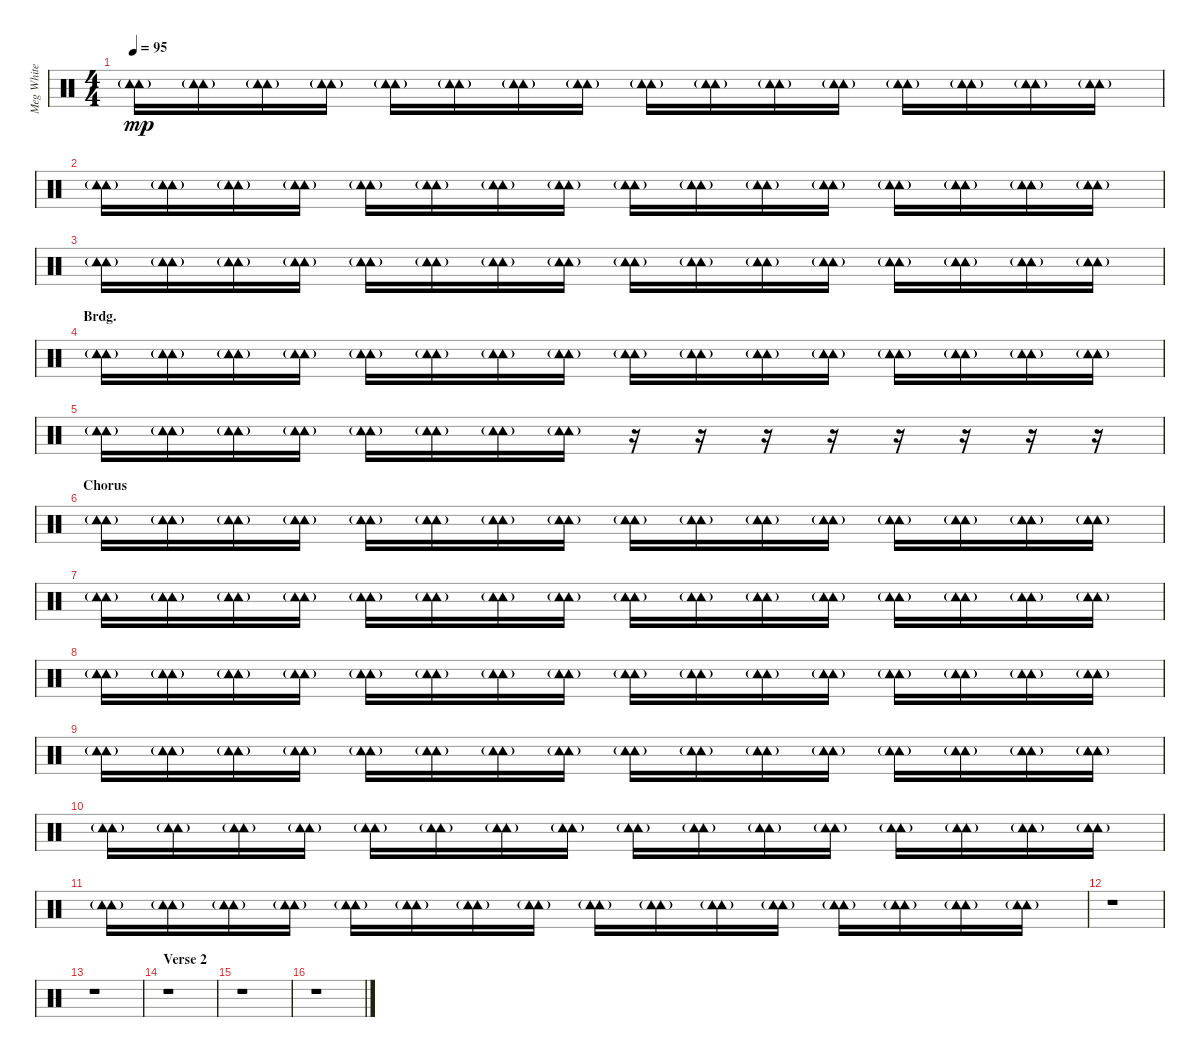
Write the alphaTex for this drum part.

\track ("Meg White - Purcussions" "Meg White ") {instrument percussion}
\staff {score}
\articulation defaults
\ts (4 4)
\tempo 95
\clef neutral
\ks c
("Tambourine (hit)"{g} "Tambourine (hit)"{g}).16{dy mp} ("Tambourine (hit)"{g} "Tambourine (hit)"{g}).16 ("Tambourine (hit)"{g} "Tambourine (hit)"{g}).16 ("Tambourine (hit)"{g} "Tambourine (hit)"{g}).16 ("Tambourine (hit)"{g} "Tambourine (hit)"{g}).16 ("Tambourine (hit)"{g} "Tambourine (hit)"{g}).16 ("Tambourine (hit)"{g} "Tambourine (hit)"{g}).16 ("Tambourine (hit)"{g} "Tambourine (hit)"{g}).16 ("Tambourine (hit)"{g} "Tambourine (hit)"{g}).16 ("Tambourine (hit)"{g} "Tambourine (hit)"{g}).16 ("Tambourine (hit)"{g} "Tambourine (hit)"{g}).16 ("Tambourine (hit)"{g} "Tambourine (hit)"{g}).16 ("Tambourine (hit)"{g} "Tambourine (hit)"{g}).16 ("Tambourine (hit)"{g} "Tambourine (hit)"{g}).16 ("Tambourine (hit)"{g} "Tambourine (hit)"{g}).16 ("Tambourine (hit)"{g} "Tambourine (hit)"{g}).16 |
("Tambourine (hit)"{g} "Tambourine (hit)"{g}).16 ("Tambourine (hit)"{g} "Tambourine (hit)"{g}).16 ("Tambourine (hit)"{g} "Tambourine (hit)"{g}).16 ("Tambourine (hit)"{g} "Tambourine (hit)"{g}).16 ("Tambourine (hit)"{g} "Tambourine (hit)"{g}).16 ("Tambourine (hit)"{g} "Tambourine (hit)"{g}).16 ("Tambourine (hit)"{g} "Tambourine (hit)"{g}).16 ("Tambourine (hit)"{g} "Tambourine (hit)"{g}).16 ("Tambourine (hit)"{g} "Tambourine (hit)"{g}).16 ("Tambourine (hit)"{g} "Tambourine (hit)"{g}).16 ("Tambourine (hit)"{g} "Tambourine (hit)"{g}).16 ("Tambourine (hit)"{g} "Tambourine (hit)"{g}).16 ("Tambourine (hit)"{g} "Tambourine (hit)"{g}).16 ("Tambourine (hit)"{g} "Tambourine (hit)"{g}).16 ("Tambourine (hit)"{g} "Tambourine (hit)"{g}).16 ("Tambourine (hit)"{g} "Tambourine (hit)"{g}).16 |
("Tambourine (hit)"{g} "Tambourine (hit)"{g}).16 ("Tambourine (hit)"{g} "Tambourine (hit)"{g}).16 ("Tambourine (hit)"{g} "Tambourine (hit)"{g}).16 ("Tambourine (hit)"{g} "Tambourine (hit)"{g}).16 ("Tambourine (hit)"{g} "Tambourine (hit)"{g}).16 ("Tambourine (hit)"{g} "Tambourine (hit)"{g}).16 ("Tambourine (hit)"{g} "Tambourine (hit)"{g}).16 ("Tambourine (hit)"{g} "Tambourine (hit)"{g}).16 ("Tambourine (hit)"{g} "Tambourine (hit)"{g}).16 ("Tambourine (hit)"{g} "Tambourine (hit)"{g}).16 ("Tambourine (hit)"{g} "Tambourine (hit)"{g}).16 ("Tambourine (hit)"{g} "Tambourine (hit)"{g}).16 ("Tambourine (hit)"{g} "Tambourine (hit)"{g}).16 ("Tambourine (hit)"{g} "Tambourine (hit)"{g}).16 ("Tambourine (hit)"{g} "Tambourine (hit)"{g}).16 ("Tambourine (hit)"{g} "Tambourine (hit)"{g}).16 |
\section ("" "Brdg.")
("Tambourine (hit)"{g} "Tambourine (hit)"{g}).16 ("Tambourine (hit)"{g} "Tambourine (hit)"{g}).16 ("Tambourine (hit)"{g} "Tambourine (hit)"{g}).16 ("Tambourine (hit)"{g} "Tambourine (hit)"{g}).16 ("Tambourine (hit)"{g} "Tambourine (hit)"{g}).16 ("Tambourine (hit)"{g} "Tambourine (hit)"{g}).16 ("Tambourine (hit)"{g} "Tambourine (hit)"{g}).16 ("Tambourine (hit)"{g} "Tambourine (hit)"{g}).16 ("Tambourine (hit)"{g} "Tambourine (hit)"{g}).16 ("Tambourine (hit)"{g} "Tambourine (hit)"{g}).16 ("Tambourine (hit)"{g} "Tambourine (hit)"{g}).16 ("Tambourine (hit)"{g} "Tambourine (hit)"{g}).16 ("Tambourine (hit)"{g} "Tambourine (hit)"{g}).16 ("Tambourine (hit)"{g} "Tambourine (hit)"{g}).16 ("Tambourine (hit)"{g} "Tambourine (hit)"{g}).16 ("Tambourine (hit)"{g} "Tambourine (hit)"{g}).16 |
("Tambourine (hit)"{g} "Tambourine (hit)"{g}).16 ("Tambourine (hit)"{g} "Tambourine (hit)"{g}).16 ("Tambourine (hit)"{g} "Tambourine (hit)"{g}).16 ("Tambourine (hit)"{g} "Tambourine (hit)"{g}).16 ("Tambourine (hit)"{g} "Tambourine (hit)"{g}).16 ("Tambourine (hit)"{g} "Tambourine (hit)"{g}).16 ("Tambourine (hit)"{g} "Tambourine (hit)"{g}).16 ("Tambourine (hit)"{g} "Tambourine (hit)"{g}).16 r.16 r.16 r.16 r.16 r.16 r.16 r.16 r.16 |
\section ("" "Chorus")
("Tambourine (hit)"{g} "Tambourine (hit)"{g}).16 ("Tambourine (hit)"{g} "Tambourine (hit)"{g}).16 ("Tambourine (hit)"{g} "Tambourine (hit)"{g}).16 ("Tambourine (hit)"{g} "Tambourine (hit)"{g}).16 ("Tambourine (hit)"{g} "Tambourine (hit)"{g}).16 ("Tambourine (hit)"{g} "Tambourine (hit)"{g}).16 ("Tambourine (hit)"{g} "Tambourine (hit)"{g}).16 ("Tambourine (hit)"{g} "Tambourine (hit)"{g}).16 ("Tambourine (hit)"{g} "Tambourine (hit)"{g}).16 ("Tambourine (hit)"{g} "Tambourine (hit)"{g}).16 ("Tambourine (hit)"{g} "Tambourine (hit)"{g}).16 ("Tambourine (hit)"{g} "Tambourine (hit)"{g}).16 ("Tambourine (hit)"{g} "Tambourine (hit)"{g}).16 ("Tambourine (hit)"{g} "Tambourine (hit)"{g}).16 ("Tambourine (hit)"{g} "Tambourine (hit)"{g}).16 ("Tambourine (hit)"{g} "Tambourine (hit)"{g}).16 |
("Tambourine (hit)"{g} "Tambourine (hit)"{g}).16 ("Tambourine (hit)"{g} "Tambourine (hit)"{g}).16 ("Tambourine (hit)"{g} "Tambourine (hit)"{g}).16 ("Tambourine (hit)"{g} "Tambourine (hit)"{g}).16 ("Tambourine (hit)"{g} "Tambourine (hit)"{g}).16 ("Tambourine (hit)"{g} "Tambourine (hit)"{g}).16 ("Tambourine (hit)"{g} "Tambourine (hit)"{g}).16 ("Tambourine (hit)"{g} "Tambourine (hit)"{g}).16 ("Tambourine (hit)"{g} "Tambourine (hit)"{g}).16 ("Tambourine (hit)"{g} "Tambourine (hit)"{g}).16 ("Tambourine (hit)"{g} "Tambourine (hit)"{g}).16 ("Tambourine (hit)"{g} "Tambourine (hit)"{g}).16 ("Tambourine (hit)"{g} "Tambourine (hit)"{g}).16 ("Tambourine (hit)"{g} "Tambourine (hit)"{g}).16 ("Tambourine (hit)"{g} "Tambourine (hit)"{g}).16 ("Tambourine (hit)"{g} "Tambourine (hit)"{g}).16 |
("Tambourine (hit)"{g} "Tambourine (hit)"{g}).16 ("Tambourine (hit)"{g} "Tambourine (hit)"{g}).16 ("Tambourine (hit)"{g} "Tambourine (hit)"{g}).16 ("Tambourine (hit)"{g} "Tambourine (hit)"{g}).16 ("Tambourine (hit)"{g} "Tambourine (hit)"{g}).16 ("Tambourine (hit)"{g} "Tambourine (hit)"{g}).16 ("Tambourine (hit)"{g} "Tambourine (hit)"{g}).16 ("Tambourine (hit)"{g} "Tambourine (hit)"{g}).16 ("Tambourine (hit)"{g} "Tambourine (hit)"{g}).16 ("Tambourine (hit)"{g} "Tambourine (hit)"{g}).16 ("Tambourine (hit)"{g} "Tambourine (hit)"{g}).16 ("Tambourine (hit)"{g} "Tambourine (hit)"{g}).16 ("Tambourine (hit)"{g} "Tambourine (hit)"{g}).16 ("Tambourine (hit)"{g} "Tambourine (hit)"{g}).16 ("Tambourine (hit)"{g} "Tambourine (hit)"{g}).16 ("Tambourine (hit)"{g} "Tambourine (hit)"{g}).16 |
("Tambourine (hit)"{g} "Tambourine (hit)"{g}).16 ("Tambourine (hit)"{g} "Tambourine (hit)"{g}).16 ("Tambourine (hit)"{g} "Tambourine (hit)"{g}).16 ("Tambourine (hit)"{g} "Tambourine (hit)"{g}).16 ("Tambourine (hit)"{g} "Tambourine (hit)"{g}).16 ("Tambourine (hit)"{g} "Tambourine (hit)"{g}).16 ("Tambourine (hit)"{g} "Tambourine (hit)"{g}).16 ("Tambourine (hit)"{g} "Tambourine (hit)"{g}).16 ("Tambourine (hit)"{g} "Tambourine (hit)"{g}).16 ("Tambourine (hit)"{g} "Tambourine (hit)"{g}).16 ("Tambourine (hit)"{g} "Tambourine (hit)"{g}).16 ("Tambourine (hit)"{g} "Tambourine (hit)"{g}).16 ("Tambourine (hit)"{g} "Tambourine (hit)"{g}).16 ("Tambourine (hit)"{g} "Tambourine (hit)"{g}).16 ("Tambourine (hit)"{g} "Tambourine (hit)"{g}).16 ("Tambourine (hit)"{g} "Tambourine (hit)"{g}).16 |
("Tambourine (hit)"{g} "Tambourine (hit)"{g}).16 ("Tambourine (hit)"{g} "Tambourine (hit)"{g}).16 ("Tambourine (hit)"{g} "Tambourine (hit)"{g}).16 ("Tambourine (hit)"{g} "Tambourine (hit)"{g}).16 ("Tambourine (hit)"{g} "Tambourine (hit)"{g}).16 ("Tambourine (hit)"{g} "Tambourine (hit)"{g}).16 ("Tambourine (hit)"{g} "Tambourine (hit)"{g}).16 ("Tambourine (hit)"{g} "Tambourine (hit)"{g}).16 ("Tambourine (hit)"{g} "Tambourine (hit)"{g}).16 ("Tambourine (hit)"{g} "Tambourine (hit)"{g}).16 ("Tambourine (hit)"{g} "Tambourine (hit)"{g}).16 ("Tambourine (hit)"{g} "Tambourine (hit)"{g}).16 ("Tambourine (hit)"{g} "Tambourine (hit)"{g}).16 ("Tambourine (hit)"{g} "Tambourine (hit)"{g}).16 ("Tambourine (hit)"{g} "Tambourine (hit)"{g}).16 ("Tambourine (hit)"{g} "Tambourine (hit)"{g}).16 |
("Tambourine (hit)"{g} "Tambourine (hit)"{g}).16 ("Tambourine (hit)"{g} "Tambourine (hit)"{g}).16 ("Tambourine (hit)"{g} "Tambourine (hit)"{g}).16 ("Tambourine (hit)"{g} "Tambourine (hit)"{g}).16 ("Tambourine (hit)"{g} "Tambourine (hit)"{g}).16 ("Tambourine (hit)"{g} "Tambourine (hit)"{g}).16 ("Tambourine (hit)"{g} "Tambourine (hit)"{g}).16 ("Tambourine (hit)"{g} "Tambourine (hit)"{g}).16 ("Tambourine (hit)"{g} "Tambourine (hit)"{g}).16 ("Tambourine (hit)"{g} "Tambourine (hit)"{g}).16 ("Tambourine (hit)"{g} "Tambourine (hit)"{g}).16 ("Tambourine (hit)"{g} "Tambourine (hit)"{g}).16 ("Tambourine (hit)"{g} "Tambourine (hit)"{g}).16 ("Tambourine (hit)"{g} "Tambourine (hit)"{g}).16 ("Tambourine (hit)"{g} "Tambourine (hit)"{g}).16 ("Tambourine (hit)"{g} "Tambourine (hit)"{g}).16 |
r.1 |
r.1 |
\section ("" "Verse 2")
r.1 |
r.1 |
r.1
